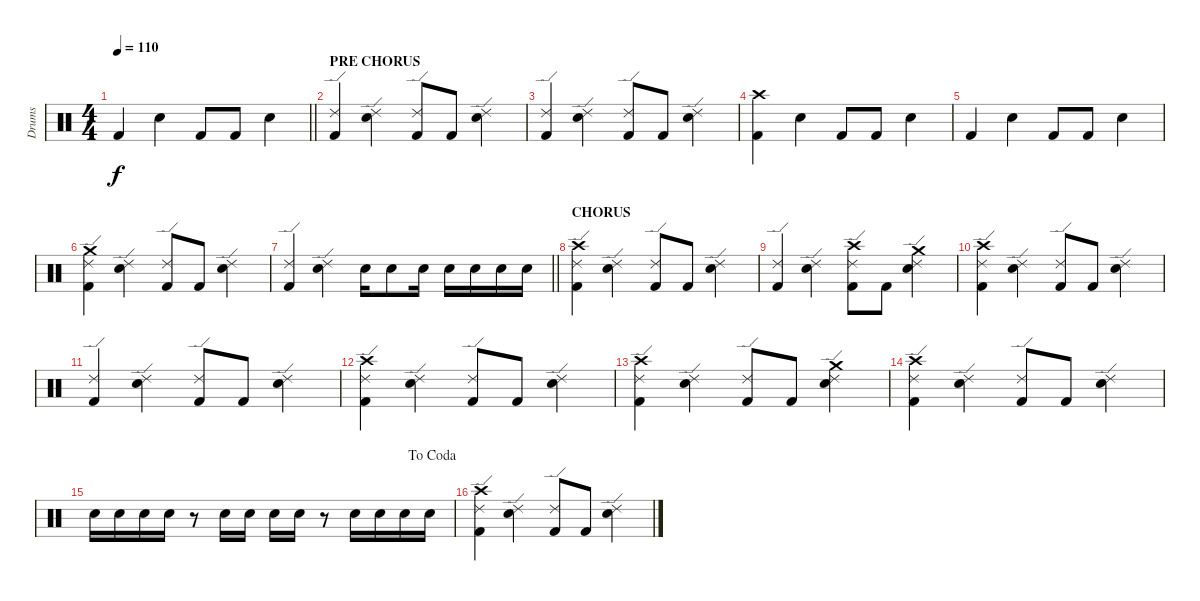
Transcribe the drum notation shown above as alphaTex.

\track ("Drums" "Drums") {instrument percussion}
\staff {score}
\articulation defaults
\ts (4 4)
\tempo 110
\clef neutral
\barLineRight lightlight
\ks aminor "Kick (hit) 2".4{dy f} "Electric Snare (hit)".4 "Kick (hit) 2".8 "Kick (hit) 2".8 "Electric Snare (hit)".4
|
\section ("" "PRE CHORUS")
("Ride (edge) 2" "Kick (hit) 2").4 ("Ride (edge) 2" "Electric Snare (hit)").4 ("Ride (edge) 2" "Kick (hit) 2").8 "Kick (hit) 2".8 ("Ride (edge) 2" "Electric Snare (hit)").4 |
("Ride (edge) 2" "Kick (hit) 2").4 ("Ride (edge) 2" "Electric Snare (hit)").4 ("Ride (edge) 2" "Kick (hit) 2").8 "Kick (hit) 2".8 ("Ride (edge) 2" "Electric Snare (hit)").4 |
("Crash high (hit)" "Kick (hit) 2").4 "Electric Snare (hit)".4 "Kick (hit) 2".8 "Kick (hit) 2".8 "Electric Snare (hit)".4 |
"Kick (hit) 2".4 "Electric Snare (hit)".4 "Kick (hit) 2".8 "Kick (hit) 2".8 "Electric Snare (hit)".4 |
("Crash medium (hit)" "Ride (edge) 2" "Kick (hit) 2").4 ("Ride (edge) 2" "Electric Snare (hit)").4 ("Ride (edge) 2" "Kick (hit) 2").8 "Kick (hit) 2".8 ("Ride (edge) 2" "Electric Snare (hit)").4 |
\barLineRight lightlight
("Ride (edge) 2" "Kick (hit) 2").4 ("Ride (edge) 2" "Electric Snare (hit)").4 "Electric Snare (hit)".16 "Electric Snare (hit)".8 "Electric Snare (hit)".16 "Electric Snare (hit)".16 "Electric Snare (hit)".16 "Electric Snare (hit)".16 "Electric Snare (hit)".16 |
\section ("" "CHORUS")
("Crash high (hit)" "Ride (edge) 2" "Kick (hit) 2").4 ("Ride (edge) 2" "Electric Snare (hit)").4 ("Ride (edge) 2" "Kick (hit) 2").8 "Kick (hit) 2".8 ("Ride (edge) 2" "Electric Snare (hit)").4 |
("Ride (edge) 2" "Kick (hit) 2").4 ("Ride (edge) 2" "Electric Snare (hit)").4 ("Crash high (hit)" "Ride (edge) 2" "Kick (hit) 2").8 "Kick (hit) 2".8 ("Crash medium (hit)" "Ride (edge) 2" "Electric Snare (hit)").4 |
("Crash high (hit)" "Ride (edge) 2" "Kick (hit) 2").4 ("Ride (edge) 2" "Electric Snare (hit)").4 ("Ride (edge) 2" "Kick (hit) 2").8 "Kick (hit) 2".8 ("Ride (edge) 2" "Electric Snare (hit)").4 |
("Ride (edge) 2" "Kick (hit) 2").4 ("Ride (edge) 2" "Electric Snare (hit)").4 ("Ride (edge) 2" "Kick (hit) 2").8 "Kick (hit) 2".8 ("Ride (edge) 2" "Electric Snare (hit)").4 |
("Crash high (hit)" "Ride (edge) 2" "Kick (hit) 2").4 ("Ride (edge) 2" "Electric Snare (hit)").4 ("Ride (edge) 2" "Kick (hit) 2").8 "Kick (hit) 2".8 ("Ride (edge) 2" "Electric Snare (hit)").4 |
("Crash high (hit)" "Ride (edge) 2" "Kick (hit) 2").4 ("Ride (edge) 2" "Electric Snare (hit)").4 ("Ride (edge) 2" "Kick (hit) 2").8 "Kick (hit) 2".8 ("Crash medium (hit)" "Ride (edge) 2" "Electric Snare (hit)").4 |
("Crash high (hit)" "Ride (edge) 2" "Kick (hit) 2").4 ("Ride (edge) 2" "Electric Snare (hit)").4 ("Ride (edge) 2" "Kick (hit) 2").8 "Kick (hit) 2".8 ("Ride (edge) 2" "Electric Snare (hit)").4 |
\jump dacoda "Electric Snare (hit)".16 "Electric Snare (hit)".16 "Electric Snare (hit)".16 "Electric Snare (hit)".16
r.8 "Electric Snare (hit)".16 "Electric Snare (hit)".16 "Electric Snare (hit)".16 "Electric Snare (hit)".16 r.8 "Electric Snare (hit)".16 "Electric Snare (hit)".16 "Electric Snare (hit)".16 "Electric Snare (hit)".16 |
("Crash high (hit)" "Ride (edge) 2" "Kick (hit) 2").4 ("Ride (edge) 2" "Electric Snare (hit)").4 ("Ride (edge) 2" "Kick (hit) 2").8 "Kick (hit) 2".8 ("Ride (edge) 2" "Electric Snare (hit)").4
